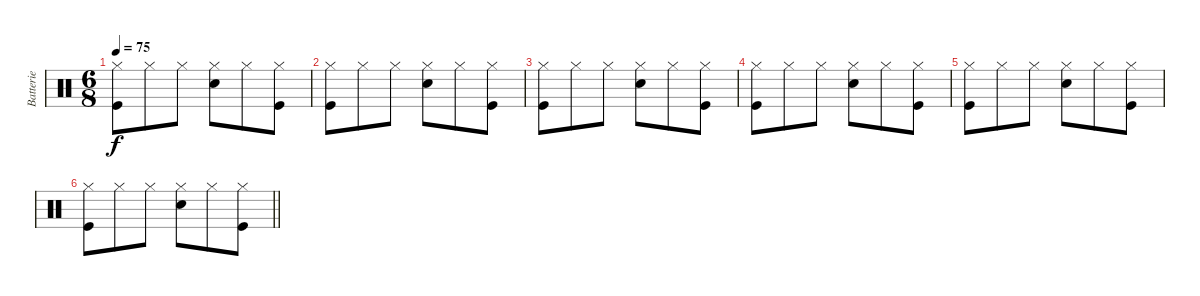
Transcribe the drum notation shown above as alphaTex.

\track ("Batterie" "Batterie") {instrument percussion}
\staff {score}
\articulation defaults
\ts (6 8)
\tempo 75
\clef neutral
\ks c
("Hi-Hat (closed)" "Kick (hit)").8{dy f} "Hi-Hat (closed)".8 "Hi-Hat (closed)".8 ("Snare (hit) 2" "Hi-Hat (closed)").8 "Hi-Hat (closed)".8 ("Kick (hit)" "Hi-Hat (closed)").8 |
("Hi-Hat (closed)" "Kick (hit)").8 "Hi-Hat (closed)".8 "Hi-Hat (closed)".8 ("Snare (hit) 2" "Hi-Hat (closed)").8 "Hi-Hat (closed)".8 ("Kick (hit)" "Hi-Hat (closed)").8 |
("Hi-Hat (closed)" "Kick (hit)").8 "Hi-Hat (closed)".8 "Hi-Hat (closed)".8 ("Snare (hit) 2" "Hi-Hat (closed)").8 "Hi-Hat (closed)".8 ("Kick (hit)" "Hi-Hat (closed)").8 |
("Hi-Hat (closed)" "Kick (hit)").8 "Hi-Hat (closed)".8 "Hi-Hat (closed)".8 ("Snare (hit) 2" "Hi-Hat (closed)").8 "Hi-Hat (closed)".8 ("Kick (hit)" "Hi-Hat (closed)").8 |
("Hi-Hat (closed)" "Kick (hit)").8 "Hi-Hat (closed)".8 "Hi-Hat (closed)".8 ("Snare (hit) 2" "Hi-Hat (closed)").8 "Hi-Hat (closed)".8 ("Kick (hit)" "Hi-Hat (closed)").8 |
\barLineRight lightlight
("Hi-Hat (closed)" "Kick (hit)").8 "Hi-Hat (closed)".8 "Hi-Hat (closed)".8 ("Snare (hit) 2" "Hi-Hat (closed)").8 "Hi-Hat (closed)".8 ("Kick (hit)" "Hi-Hat (closed)").8
